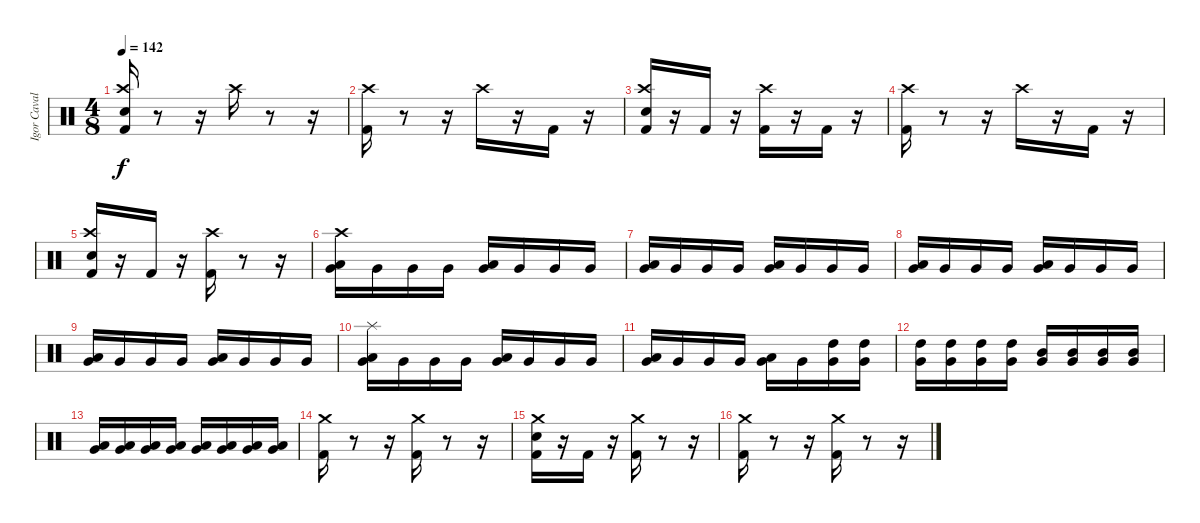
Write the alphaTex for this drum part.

\track ("Igor Cavalera" "Igor Caval") {instrument percussion}
\staff {score}
\articulation defaults
\ts (4 8)
\tempo 142
\clef neutral
\ks c
("Kick (hit) 2" "Crash high (hit)" "Electric Snare (hit)").16{dy f} r.8 r.16 "Crash high (hit)".16 r.8 r.16 |
("Kick (hit) 2" "Crash high (hit)").16 r.8 r.16 "Crash high (hit)".16 r.16 "Kick (hit) 2".16 r.16 |
("Electric Snare (hit)" "Kick (hit) 2" "Crash high (hit)").16 r.16 "Kick (hit) 2".16 r.16 ("Crash high (hit)" "Kick (hit) 2").16 r.16 "Kick (hit) 2".16 r.16 |
("Kick (hit) 2" "Crash high (hit)").16 r.8 r.16 "Crash high (hit)".16 r.16 "Kick (hit) 2".16 r.16 |
("Kick (hit) 2" "Crash high (hit)" "Electric Snare (hit)").16 r.16 "Kick (hit) 2".16 r.16 ("Crash high (hit)" "Kick (hit) 2").16 r.8 r.16 |
("Crash high (hit)" "Low Tom (hit)" "Very Low Tom (hit)").16 "Very Low Tom (hit)".16 "Very Low Tom (hit)".16 "Very Low Tom (hit)".16 ("Low Tom (hit)" "Very Low Tom (hit)").16 "Very Low Tom (hit)".16 "Very Low Tom (hit)".16 "Very Low Tom (hit)".16 |
("Low Tom (hit)" "Very Low Tom (hit)").16 "Very Low Tom (hit)".16 "Very Low Tom (hit)".16 "Very Low Tom (hit)".16 ("Low Tom (hit)" "Very Low Tom (hit)").16 "Very Low Tom (hit)".16 "Very Low Tom (hit)".16 "Very Low Tom (hit)".16 |
("Low Tom (hit)" "Very Low Tom (hit)").16 "Very Low Tom (hit)".16 "Very Low Tom (hit)".16 "Very Low Tom (hit)".16 ("Low Tom (hit)" "Very Low Tom (hit)").16 "Very Low Tom (hit)".16 "Very Low Tom (hit)".16 "Very Low Tom (hit)".16 |
("Low Tom (hit)" "Very Low Tom (hit)").16 "Very Low Tom (hit)".16 "Very Low Tom (hit)".16 "Very Low Tom (hit)".16 ("Low Tom (hit)" "Very Low Tom (hit)").16 "Very Low Tom (hit)".16 "Very Low Tom (hit)".16 "Very Low Tom (hit)".16 |
("Low Tom (hit)" "Very Low Tom (hit)" "Splash (hit)").16 "Very Low Tom (hit)".16 "Very Low Tom (hit)".16 "Very Low Tom (hit)".16 ("Low Tom (hit)" "Very Low Tom (hit)").16 "Very Low Tom (hit)".16 "Very Low Tom (hit)".16 "Very Low Tom (hit)".16 |
("Low Tom (hit)" "Very Low Tom (hit)").16 "Very Low Tom (hit)".16 "Very Low Tom (hit)".16 "Very Low Tom (hit)".16 ("Low Tom (hit)" "Very Low Tom (hit)").16 "Very Low Tom (hit)".16 ("Very Low Tom (hit)" "High Tom (hit)").16 ("Very Low Tom (hit)" "High Tom (hit)").16 |
("Very Low Tom (hit)" "High Tom (hit)").16 ("Very Low Tom (hit)" "High Tom (hit)").16 ("Very Low Tom (hit)" "High Tom (hit)").16 ("Very Low Tom (hit)" "High Tom (hit)").16 ("Very Low Tom (hit)" "Mid Tom (hit)").16 ("Very Low Tom (hit)" "Mid Tom (hit)").16 ("Very Low Tom (hit)" "Mid Tom (hit)").16 ("Very Low Tom (hit)" "Mid Tom (hit)").16 |
("Very Low Tom (hit)" "Low Tom (hit)").16 ("Very Low Tom (hit)" "Low Tom (hit)").16 ("Very Low Tom (hit)" "Low Tom (hit)").16 ("Very Low Tom (hit)" "Low Tom (hit)").16 ("Very Low Tom (hit)" "Low Floor Tom (hit)").16 ("Very Low Tom (hit)" "Low Floor Tom (hit)").16 ("Very Low Tom (hit)" "Low Floor Tom (hit)").16 ("Very Low Tom (hit)" "Low Floor Tom (hit)").16 |
("Kick (hit) 2" "Crash medium (hit)").16 r.8 r.16 ("Kick (hit) 2" "Crash medium (hit)").16 r.8 r.16 |
("Electric Snare (hit)" "Crash medium (hit)" "Kick (hit) 2").16 r.16 "Kick (hit) 2".16 r.16 ("Kick (hit) 2" "Crash medium (hit)").16 r.8 r.16 |
("Kick (hit) 2" "Crash medium (hit)").16 r.8 r.16 ("Kick (hit) 2" "Crash medium (hit)").16 r.8 r.16
